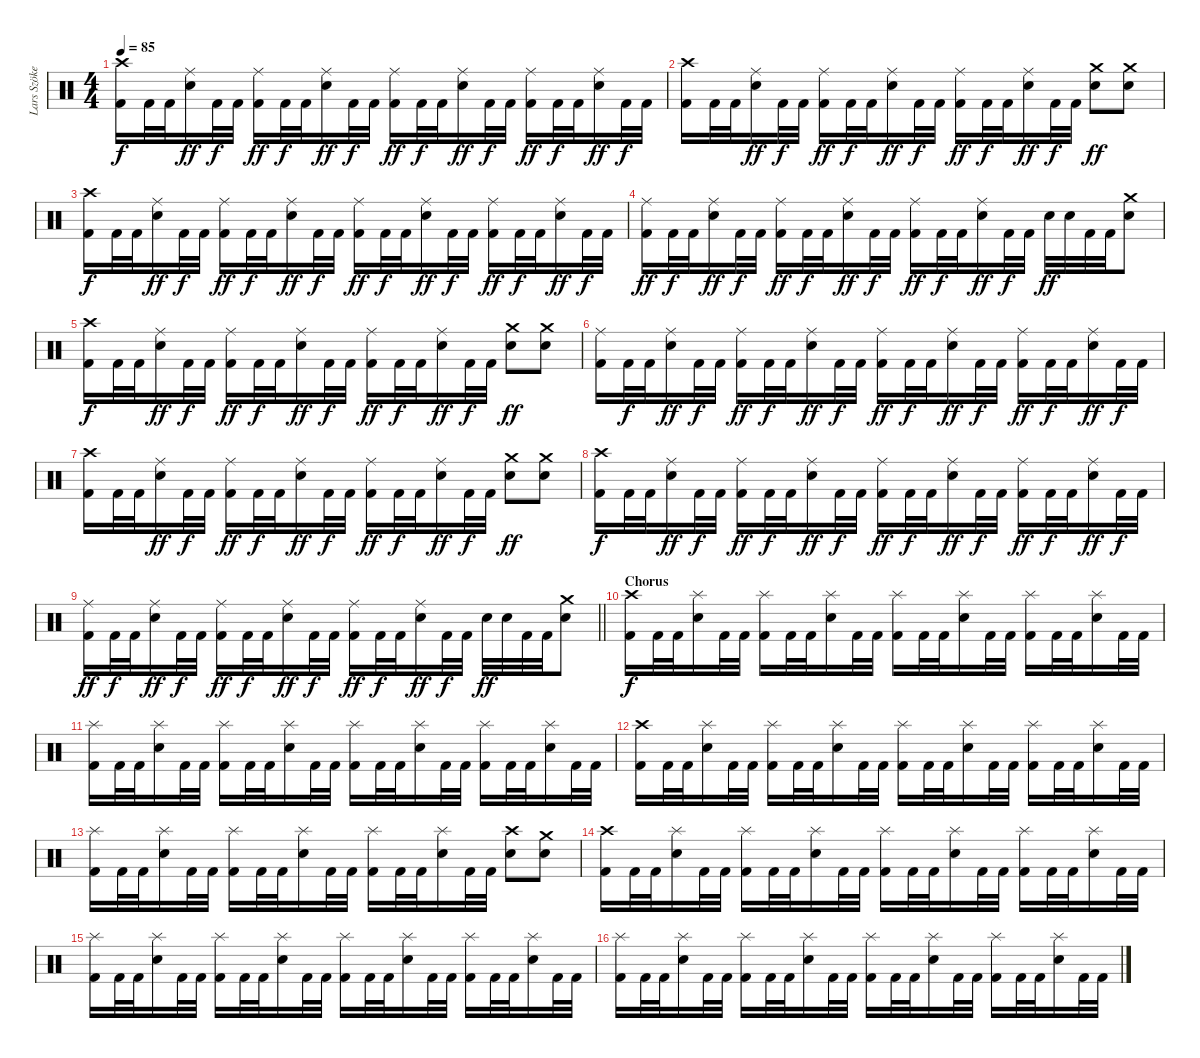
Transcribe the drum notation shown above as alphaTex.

\track ("Lars Szöke" "Lars Szöke") {instrument percussion}
\staff {score}
\articulation defaults
\ts (4 4)
\tempo 85
\clef neutral
\ks c
("Crash high (hit)" "Kick (hit) 2").16{dy f} "Kick (hit) 2".32 "Kick (hit) 2".32 ("Ride (middle)" "Snare (hit) 2").16{dy ff} "Kick (hit) 2".32{dy f} "Kick (hit) 2".32 ("Ride (middle)" "Kick (hit) 2").16{dy ff} "Kick (hit) 2".32{dy f} "Kick (hit) 2".32 ("Ride (middle)" "Snare (hit) 2").16{dy ff} "Kick (hit) 2".32{dy f} "Kick (hit) 2".32 ("Ride (middle)" "Kick (hit) 2").16{dy ff} "Kick (hit) 2".32{dy f} "Kick (hit) 2".32 ("Ride (middle)" "Snare (hit) 2").16{dy ff} "Kick (hit) 2".32{dy f} "Kick (hit) 2".32 ("Ride (middle)" "Kick (hit) 2").16{dy ff} "Kick (hit) 2".32{dy f} "Kick (hit) 2".32 ("Ride (middle)" "Snare (hit) 2").16{dy ff} "Kick (hit) 2".32{dy f} "Kick (hit) 2".32 |
("Crash high (hit)" "Kick (hit) 2").16 "Kick (hit) 2".32 "Kick (hit) 2".32 ("Ride (middle)" "Snare (hit) 2").16{dy ff} "Kick (hit) 2".32{dy f} "Kick (hit) 2".32 ("Ride (middle)" "Kick (hit) 2").16{dy ff} "Kick (hit) 2".32{dy f} "Kick (hit) 2".32 ("Ride (middle)" "Snare (hit) 2").16{dy ff} "Kick (hit) 2".32{dy f} "Kick (hit) 2".32 ("Ride (middle)" "Kick (hit) 2").16{dy ff} "Kick (hit) 2".32{dy f} "Kick (hit) 2".32 ("Ride (middle)" "Snare (hit) 2").16{dy ff} "Kick (hit) 2".32{dy f} "Kick (hit) 2".32 ("Crash medium (hit)" "Snare (hit) 2").8{dy ff} ("Crash medium (hit)" "Snare (hit) 2").8 |
("Crash high (hit)" "Kick (hit) 2").16{dy f} "Kick (hit) 2".32 "Kick (hit) 2".32 ("Ride (middle)" "Snare (hit) 2").16{dy ff} "Kick (hit) 2".32{dy f} "Kick (hit) 2".32 ("Ride (middle)" "Kick (hit) 2").16{dy ff} "Kick (hit) 2".32{dy f} "Kick (hit) 2".32 ("Ride (middle)" "Snare (hit) 2").16{dy ff} "Kick (hit) 2".32{dy f} "Kick (hit) 2".32 ("Ride (middle)" "Kick (hit) 2").16{dy ff} "Kick (hit) 2".32{dy f} "Kick (hit) 2".32 ("Ride (middle)" "Snare (hit) 2").16{dy ff} "Kick (hit) 2".32{dy f} "Kick (hit) 2".32 ("Ride (middle)" "Kick (hit) 2").16{dy ff} "Kick (hit) 2".32{dy f} "Kick (hit) 2".32 ("Ride (middle)" "Snare (hit) 2").16{dy ff} "Kick (hit) 2".32{dy f} "Kick (hit) 2".32 |
("Ride (middle)" "Kick (hit) 2").16{dy ff} "Kick (hit) 2".32{dy f} "Kick (hit) 2".32 ("Ride (middle)" "Snare (hit) 2").16{dy ff} "Kick (hit) 2".32{dy f} "Kick (hit) 2".32 ("Ride (middle)" "Kick (hit) 2").16{dy ff} "Kick (hit) 2".32{dy f} "Kick (hit) 2".32 ("Ride (middle)" "Snare (hit) 2").16{dy ff} "Kick (hit) 2".32{dy f} "Kick (hit) 2".32 ("Ride (middle)" "Kick (hit) 2").16{dy ff} "Kick (hit) 2".32{dy f} "Kick (hit) 2".32 ("Ride (middle)" "Snare (hit) 2").16{dy ff} "Kick (hit) 2".32{dy f} "Kick (hit) 2".32 "Snare (hit) 2".32{dy ff} "Snare (hit) 2".32 "Kick (hit) 2".32 "Kick (hit) 2".32 ("Crash medium (hit)" "Snare (hit) 2").8 |
("Crash high (hit)" "Kick (hit) 2").16{dy f} "Kick (hit) 2".32 "Kick (hit) 2".32 ("Ride (middle)" "Snare (hit) 2").16{dy ff} "Kick (hit) 2".32{dy f} "Kick (hit) 2".32 ("Ride (middle)" "Kick (hit) 2").16{dy ff} "Kick (hit) 2".32{dy f} "Kick (hit) 2".32 ("Ride (middle)" "Snare (hit) 2").16{dy ff} "Kick (hit) 2".32{dy f} "Kick (hit) 2".32 ("Ride (middle)" "Kick (hit) 2").16{dy ff} "Kick (hit) 2".32{dy f} "Kick (hit) 2".32 ("Ride (middle)" "Snare (hit) 2").16{dy ff} "Kick (hit) 2".32{dy f} "Kick (hit) 2".32 ("Crash medium (hit)" "Snare (hit) 2").8{dy ff} ("Crash medium (hit)" "Snare (hit) 2").8 |
("Ride (middle)" "Kick (hit) 2").16 "Kick (hit) 2".32{dy f} "Kick (hit) 2".32 ("Ride (middle)" "Snare (hit) 2").16{dy ff} "Kick (hit) 2".32{dy f} "Kick (hit) 2".32 ("Ride (middle)" "Kick (hit) 2").16{dy ff} "Kick (hit) 2".32{dy f} "Kick (hit) 2".32 ("Ride (middle)" "Snare (hit) 2").16{dy ff} "Kick (hit) 2".32{dy f} "Kick (hit) 2".32 ("Ride (middle)" "Kick (hit) 2").16{dy ff} "Kick (hit) 2".32{dy f} "Kick (hit) 2".32 ("Ride (middle)" "Snare (hit) 2").16{dy ff} "Kick (hit) 2".32{dy f} "Kick (hit) 2".32 ("Ride (middle)" "Kick (hit) 2").16{dy ff} "Kick (hit) 2".32{dy f} "Kick (hit) 2".32 ("Ride (middle)" "Snare (hit) 2").16{dy ff} "Kick (hit) 2".32{dy f} "Kick (hit) 2".32 |
("Crash high (hit)" "Kick (hit) 2").16 "Kick (hit) 2".32 "Kick (hit) 2".32 ("Ride (middle)" "Snare (hit) 2").16{dy ff} "Kick (hit) 2".32{dy f} "Kick (hit) 2".32 ("Ride (middle)" "Kick (hit) 2").16{dy ff} "Kick (hit) 2".32{dy f} "Kick (hit) 2".32 ("Ride (middle)" "Snare (hit) 2").16{dy ff} "Kick (hit) 2".32{dy f} "Kick (hit) 2".32 ("Ride (middle)" "Kick (hit) 2").16{dy ff} "Kick (hit) 2".32{dy f} "Kick (hit) 2".32 ("Ride (middle)" "Snare (hit) 2").16{dy ff} "Kick (hit) 2".32{dy f} "Kick (hit) 2".32 ("Crash medium (hit)" "Snare (hit) 2").8{dy ff} ("Crash medium (hit)" "Snare (hit) 2").8 |
("Crash high (hit)" "Kick (hit) 2").16{dy f} "Kick (hit) 2".32 "Kick (hit) 2".32 ("Ride (middle)" "Snare (hit) 2").16{dy ff} "Kick (hit) 2".32{dy f} "Kick (hit) 2".32 ("Ride (middle)" "Kick (hit) 2").16{dy ff} "Kick (hit) 2".32{dy f} "Kick (hit) 2".32 ("Ride (middle)" "Snare (hit) 2").16{dy ff} "Kick (hit) 2".32{dy f} "Kick (hit) 2".32 ("Ride (middle)" "Kick (hit) 2").16{dy ff} "Kick (hit) 2".32{dy f} "Kick (hit) 2".32 ("Ride (middle)" "Snare (hit) 2").16{dy ff} "Kick (hit) 2".32{dy f} "Kick (hit) 2".32 ("Ride (middle)" "Kick (hit) 2").16{dy ff} "Kick (hit) 2".32{dy f} "Kick (hit) 2".32 ("Ride (middle)" "Snare (hit) 2").16{dy ff} "Kick (hit) 2".32{dy f} "Kick (hit) 2".32 |
\barLineRight lightlight
("Ride (middle)" "Kick (hit) 2").16{dy ff} "Kick (hit) 2".32{dy f} "Kick (hit) 2".32 ("Ride (middle)" "Snare (hit) 2").16{dy ff} "Kick (hit) 2".32{dy f} "Kick (hit) 2".32 ("Ride (middle)" "Kick (hit) 2").16{dy ff} "Kick (hit) 2".32{dy f} "Kick (hit) 2".32 ("Ride (middle)" "Snare (hit) 2").16{dy ff} "Kick (hit) 2".32{dy f} "Kick (hit) 2".32 ("Ride (middle)" "Kick (hit) 2").16{dy ff} "Kick (hit) 2".32{dy f} "Kick (hit) 2".32 ("Ride (middle)" "Snare (hit) 2").16{dy ff} "Kick (hit) 2".32{dy f} "Kick (hit) 2".32 "Snare (hit) 2".32{dy ff} "Snare (hit) 2".32 "Kick (hit) 2".32 "Kick (hit) 2".32 ("Crash medium (hit)" "Snare (hit) 2").8 |
\section ("" "Chorus")
("Crash high (hit)" "Kick (hit) 2").16{dy f} "Kick (hit) 2".32 "Kick (hit) 2".32 ("Splash (hit)" "Snare (hit) 2").16 "Kick (hit) 2".32 "Kick (hit) 2".32 ("Splash (hit)" "Kick (hit) 2").16 "Kick (hit) 2".32 "Kick (hit) 2".32 ("Splash (hit)" "Snare (hit) 2").16 "Kick (hit) 2".32 "Kick (hit) 2".32 ("Splash (hit)" "Kick (hit) 2").16 "Kick (hit) 2".32 "Kick (hit) 2".32 ("Splash (hit)" "Snare (hit) 2").16 "Kick (hit) 2".32 "Kick (hit) 2".32 ("Splash (hit)" "Kick (hit) 2").16 "Kick (hit) 2".32 "Kick (hit) 2".32 ("Splash (hit)" "Snare (hit) 2").16 "Kick (hit) 2".32 "Kick (hit) 2".32 |
("Splash (hit)" "Kick (hit) 2").16 "Kick (hit) 2".32 "Kick (hit) 2".32 ("Splash (hit)" "Snare (hit) 2").16 "Kick (hit) 2".32 "Kick (hit) 2".32 ("Splash (hit)" "Kick (hit) 2").16 "Kick (hit) 2".32 "Kick (hit) 2".32 ("Splash (hit)" "Snare (hit) 2").16 "Kick (hit) 2".32 "Kick (hit) 2".32 ("Splash (hit)" "Kick (hit) 2").16 "Kick (hit) 2".32 "Kick (hit) 2".32 ("Splash (hit)" "Snare (hit) 2").16 "Kick (hit) 2".32 "Kick (hit) 2".32 ("Splash (hit)" "Kick (hit) 2").16 "Kick (hit) 2".32 "Kick (hit) 2".32 ("Splash (hit)" "Snare (hit) 2").16 "Kick (hit) 2".32 "Kick (hit) 2".32 |
("Crash high (hit)" "Kick (hit) 2").16 "Kick (hit) 2".32 "Kick (hit) 2".32 ("Splash (hit)" "Snare (hit) 2").16 "Kick (hit) 2".32 "Kick (hit) 2".32 ("Splash (hit)" "Kick (hit) 2").16 "Kick (hit) 2".32 "Kick (hit) 2".32 ("Splash (hit)" "Snare (hit) 2").16 "Kick (hit) 2".32 "Kick (hit) 2".32 ("Splash (hit)" "Kick (hit) 2").16 "Kick (hit) 2".32 "Kick (hit) 2".32 ("Splash (hit)" "Snare (hit) 2").16 "Kick (hit) 2".32 "Kick (hit) 2".32 ("Splash (hit)" "Kick (hit) 2").16 "Kick (hit) 2".32 "Kick (hit) 2".32 ("Splash (hit)" "Snare (hit) 2").16 "Kick (hit) 2".32 "Kick (hit) 2".32 |
("Splash (hit)" "Kick (hit) 2").16 "Kick (hit) 2".32 "Kick (hit) 2".32 ("Splash (hit)" "Snare (hit) 2").16 "Kick (hit) 2".32 "Kick (hit) 2".32 ("Splash (hit)" "Kick (hit) 2").16 "Kick (hit) 2".32 "Kick (hit) 2".32 ("Splash (hit)" "Snare (hit) 2").16 "Kick (hit) 2".32 "Kick (hit) 2".32 ("Splash (hit)" "Kick (hit) 2").16 "Kick (hit) 2".32 "Kick (hit) 2".32 ("Splash (hit)" "Snare (hit) 2").16 "Kick (hit) 2".32 "Kick (hit) 2".32 ("Crash high (hit)" "Snare (hit) 2").8 ("Crash medium (hit)" "Snare (hit) 2").8 |
("Crash high (hit)" "Kick (hit) 2").16 "Kick (hit) 2".32 "Kick (hit) 2".32 ("Splash (hit)" "Snare (hit) 2").16 "Kick (hit) 2".32 "Kick (hit) 2".32 ("Splash (hit)" "Kick (hit) 2").16 "Kick (hit) 2".32 "Kick (hit) 2".32 ("Splash (hit)" "Snare (hit) 2").16 "Kick (hit) 2".32 "Kick (hit) 2".32 ("Splash (hit)" "Kick (hit) 2").16 "Kick (hit) 2".32 "Kick (hit) 2".32 ("Splash (hit)" "Snare (hit) 2").16 "Kick (hit) 2".32 "Kick (hit) 2".32 ("Splash (hit)" "Kick (hit) 2").16 "Kick (hit) 2".32 "Kick (hit) 2".32 ("Splash (hit)" "Snare (hit) 2").16 "Kick (hit) 2".32 "Kick (hit) 2".32 |
("Splash (hit)" "Kick (hit) 2").16 "Kick (hit) 2".32 "Kick (hit) 2".32 ("Splash (hit)" "Snare (hit) 2").16 "Kick (hit) 2".32 "Kick (hit) 2".32 ("Splash (hit)" "Kick (hit) 2").16 "Kick (hit) 2".32 "Kick (hit) 2".32 ("Splash (hit)" "Snare (hit) 2").16 "Kick (hit) 2".32 "Kick (hit) 2".32 ("Splash (hit)" "Kick (hit) 2").16 "Kick (hit) 2".32 "Kick (hit) 2".32 ("Splash (hit)" "Snare (hit) 2").16 "Kick (hit) 2".32 "Kick (hit) 2".32 ("Splash (hit)" "Kick (hit) 2").16 "Kick (hit) 2".32 "Kick (hit) 2".32 ("Splash (hit)" "Snare (hit) 2").16 "Kick (hit) 2".32 "Kick (hit) 2".32 |
("Splash (hit)" "Kick (hit) 2").16 "Kick (hit) 2".32 "Kick (hit) 2".32 ("Splash (hit)" "Snare (hit) 2").16 "Kick (hit) 2".32 "Kick (hit) 2".32 ("Splash (hit)" "Kick (hit) 2").16 "Kick (hit) 2".32 "Kick (hit) 2".32 ("Splash (hit)" "Snare (hit) 2").16 "Kick (hit) 2".32 "Kick (hit) 2".32 ("Splash (hit)" "Kick (hit) 2").16 "Kick (hit) 2".32 "Kick (hit) 2".32 ("Splash (hit)" "Snare (hit) 2").16 "Kick (hit) 2".32 "Kick (hit) 2".32 ("Splash (hit)" "Kick (hit) 2").16 "Kick (hit) 2".32 "Kick (hit) 2".32 ("Splash (hit)" "Snare (hit) 2").16 "Kick (hit) 2".32 "Kick (hit) 2".32
